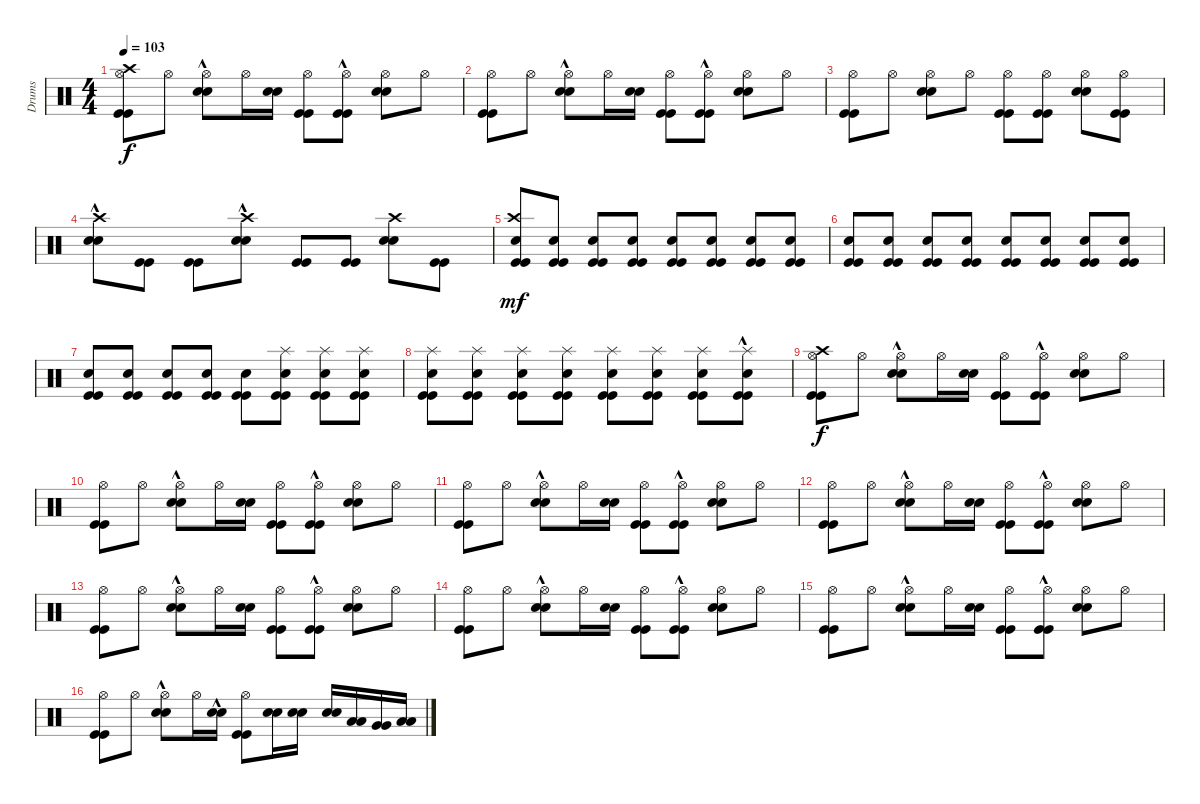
\track ("Drums" "Drums") {instrument percussion}
\staff {score}
\articulation defaults
\ts (4 4)
\tempo 103
\clef neutral
\ks c
("Kick (hit)" "Kick (hit)" "Hi-Hat (open)" "Crash high (hit)").8{dy f} "Hi-Hat (open)".8 ("Snare (hit) 2"{hac} "Snare (hit) 2"{hac} "Hi-Hat (open)").8 "Hi-Hat (open)".16 ("Snare (hit) 2" "Snare (hit) 2").16 ("Kick (hit)" "Kick (hit)" "Hi-Hat (open)").8 ("Kick (hit)"{hac} "Kick (hit)"{hac} "Hi-Hat (open)").8 ("Snare (hit) 2" "Snare (hit) 2" "Hi-Hat (open)").8 "Hi-Hat (open)".8 |
("Kick (hit)" "Kick (hit)" "Hi-Hat (open)").8 "Hi-Hat (open)".8 ("Snare (hit) 2"{hac} "Snare (hit) 2"{hac} "Hi-Hat (open)").8 "Hi-Hat (open)".16 ("Snare (hit) 2" "Snare (hit) 2").16 ("Kick (hit)" "Kick (hit)" "Hi-Hat (open)").8 ("Kick (hit)"{hac} "Kick (hit)"{hac} "Hi-Hat (open)").8 ("Snare (hit) 2" "Snare (hit) 2" "Hi-Hat (open)").8 "Hi-Hat (open)".8 |
("Kick (hit)" "Kick (hit)" "Hi-Hat (open)").8 "Hi-Hat (open)".8 ("Snare (hit) 2" "Snare (hit) 2" "Hi-Hat (open)").8 "Hi-Hat (open)".8 ("Kick (hit)" "Kick (hit)" "Hi-Hat (open)").8 ("Kick (hit)" "Kick (hit)" "Hi-Hat (open)").8 ("Snare (hit) 2" "Snare (hit) 2" "Hi-Hat (open)").8 ("Kick (hit)" "Kick (hit)" "Hi-Hat (open)").8 |
("Snare (hit) 2"{hac} "Snare (hit) 2"{hac} "Crash high (hit)"{hac}).8 ("Kick (hit)" "Kick (hit)").8 ("Kick (hit)" "Kick (hit)").8 ("Snare (hit) 2"{hac} "Snare (hit) 2"{hac} "Crash high (hit)"{hac}).8 ("Kick (hit)" "Kick (hit)").8 ("Kick (hit)" "Kick (hit)").8 ("Snare (hit) 2" "Snare (hit) 2" "Crash high (hit)").8 ("Kick (hit)" "Kick (hit)").8 |
("Kick (hit)" "Kick (hit)" "Snare (hit) 2" "Crash high (hit)").8{dy mf} ("Kick (hit)" "Kick (hit)" "Snare (hit) 2").8 ("Kick (hit)" "Kick (hit)" "Snare (hit) 2").8 ("Kick (hit)" "Kick (hit)" "Snare (hit) 2").8 ("Kick (hit)" "Kick (hit)" "Snare (hit) 2").8 ("Kick (hit)" "Kick (hit)" "Snare (hit) 2").8 ("Kick (hit)" "Kick (hit)" "Snare (hit) 2").8 ("Kick (hit)" "Kick (hit)" "Snare (hit) 2").8 |
("Kick (hit)" "Kick (hit)" "Snare (hit) 2").8 ("Kick (hit)" "Kick (hit)" "Snare (hit) 2").8 ("Kick (hit)" "Kick (hit)" "Snare (hit) 2").8 ("Kick (hit)" "Kick (hit)" "Snare (hit) 2").8 ("Kick (hit)" "Kick (hit)" "Snare (hit) 2").8 ("Kick (hit)" "Kick (hit)" "Snare (hit) 2").8 ("Kick (hit)" "Kick (hit)" "Snare (hit) 2").8 ("Kick (hit)" "Kick (hit)" "Snare (hit) 2").8 |
("Kick (hit)" "Kick (hit)" "Snare (hit) 2").8 ("Kick (hit)" "Kick (hit)" "Snare (hit) 2").8 ("Kick (hit)" "Kick (hit)" "Snare (hit) 2").8 ("Kick (hit)" "Kick (hit)" "Snare (hit) 2").8 ("Kick (hit)" "Kick (hit)" "Snare (hit) 2").8 ("Kick (hit)" "Kick (hit)" "Snare (hit) 2" "Splash (hit)").8 ("Kick (hit)" "Kick (hit)" "Snare (hit) 2" "Splash (hit)").8 ("Kick (hit)" "Kick (hit)" "Snare (hit) 2" "Splash (hit)").8 |
("Kick (hit)" "Kick (hit)" "Snare (hit) 2" "Splash (hit)").8 ("Kick (hit)" "Kick (hit)" "Snare (hit) 2" "Splash (hit)").8 ("Kick (hit)" "Kick (hit)" "Snare (hit) 2" "Splash (hit)").8 ("Kick (hit)" "Kick (hit)" "Snare (hit) 2" "Splash (hit)").8 ("Kick (hit)" "Kick (hit)" "Snare (hit) 2" "Splash (hit)").8 ("Kick (hit)" "Kick (hit)" "Snare (hit) 2" "Splash (hit)").8 ("Kick (hit)" "Kick (hit)" "Snare (hit) 2" "Splash (hit)").8 ("Kick (hit)" "Kick (hit)" "Snare (hit) 2"{hac} "Splash (hit)").8 |
("Kick (hit)" "Kick (hit)" "Hi-Hat (open)" "Crash high (hit)").8{dy f} "Hi-Hat (open)".8 ("Snare (hit) 2"{hac} "Snare (hit) 2"{hac} "Hi-Hat (open)").8 "Hi-Hat (open)".16 ("Snare (hit) 2" "Snare (hit) 2").16 ("Kick (hit)" "Kick (hit)" "Hi-Hat (open)").8 ("Kick (hit)"{hac} "Kick (hit)"{hac} "Hi-Hat (open)").8 ("Snare (hit) 2" "Snare (hit) 2" "Hi-Hat (open)").8 "Hi-Hat (open)".8 |
("Kick (hit)" "Kick (hit)" "Hi-Hat (open)").8 "Hi-Hat (open)".8 ("Snare (hit) 2"{hac} "Snare (hit) 2"{hac} "Hi-Hat (open)").8 "Hi-Hat (open)".16 ("Snare (hit) 2" "Snare (hit) 2").16 ("Kick (hit)" "Kick (hit)" "Hi-Hat (open)").8 ("Kick (hit)"{hac} "Kick (hit)"{hac} "Hi-Hat (open)").8 ("Snare (hit) 2" "Snare (hit) 2" "Hi-Hat (open)").8 "Hi-Hat (open)".8 |
("Kick (hit)" "Kick (hit)" "Hi-Hat (open)").8 "Hi-Hat (open)".8 ("Snare (hit) 2"{hac} "Snare (hit) 2"{hac} "Hi-Hat (open)").8 "Hi-Hat (open)".16 ("Snare (hit) 2" "Snare (hit) 2").16 ("Kick (hit)" "Kick (hit)" "Hi-Hat (open)").8 ("Kick (hit)"{hac} "Kick (hit)"{hac} "Hi-Hat (open)").8 ("Snare (hit) 2" "Snare (hit) 2" "Hi-Hat (open)").8 "Hi-Hat (open)".8 |
("Kick (hit)" "Kick (hit)" "Hi-Hat (open)").8 "Hi-Hat (open)".8 ("Snare (hit) 2"{hac} "Snare (hit) 2"{hac} "Hi-Hat (open)").8 "Hi-Hat (open)".16 ("Snare (hit) 2" "Snare (hit) 2").16 ("Kick (hit)" "Kick (hit)" "Hi-Hat (open)").8 ("Kick (hit)"{hac} "Kick (hit)"{hac} "Hi-Hat (open)").8 ("Snare (hit) 2" "Snare (hit) 2" "Hi-Hat (open)").8 "Hi-Hat (open)".8 |
("Kick (hit)" "Kick (hit)" "Hi-Hat (open)").8 "Hi-Hat (open)".8 ("Snare (hit) 2"{hac} "Snare (hit) 2"{hac} "Hi-Hat (open)").8 "Hi-Hat (open)".16 ("Snare (hit) 2" "Snare (hit) 2").16 ("Kick (hit)" "Kick (hit)" "Hi-Hat (open)").8 ("Kick (hit)"{hac} "Kick (hit)"{hac} "Hi-Hat (open)").8 ("Snare (hit) 2" "Snare (hit) 2" "Hi-Hat (open)").8 "Hi-Hat (open)".8 |
("Kick (hit)" "Kick (hit)" "Hi-Hat (open)").8 "Hi-Hat (open)".8 ("Snare (hit) 2"{hac} "Snare (hit) 2"{hac} "Hi-Hat (open)").8 "Hi-Hat (open)".16 ("Snare (hit) 2" "Snare (hit) 2").16 ("Kick (hit)" "Kick (hit)" "Hi-Hat (open)").8 ("Kick (hit)"{hac} "Kick (hit)"{hac} "Hi-Hat (open)").8 ("Snare (hit) 2" "Snare (hit) 2" "Hi-Hat (open)").8 "Hi-Hat (open)".8 |
("Kick (hit)" "Kick (hit)" "Hi-Hat (open)").8 "Hi-Hat (open)".8 ("Snare (hit) 2"{hac} "Snare (hit) 2"{hac} "Hi-Hat (open)").8 "Hi-Hat (open)".16 ("Snare (hit) 2" "Snare (hit) 2").16 ("Kick (hit)" "Kick (hit)" "Hi-Hat (open)").8 ("Kick (hit)"{hac} "Kick (hit)"{hac} "Hi-Hat (open)").8 ("Snare (hit) 2" "Snare (hit) 2" "Hi-Hat (open)").8 "Hi-Hat (open)".8 |
("Kick (hit)" "Kick (hit)" "Hi-Hat (open)").8 "Hi-Hat (open)".8 ("Snare (hit) 2"{hac} "Snare (hit) 2"{hac} "Hi-Hat (open)").8 "Hi-Hat (open)".16 ("Snare (hit) 2"{hac} "Snare (hit) 2"{hac}).16 ("Kick (hit)" "Kick (hit)" "Hi-Hat (open)").8 ("Snare (hit) 2" "Snare (hit) 2").16 ("Snare (hit) 2" "Snare (hit) 2").16 ("Snare (hit) 2" "Snare (hit) 2").16 ("Low Tom (hit)" "Low Tom (hit)").16 ("Very Low Tom (hit)" "Very Low Tom (hit)").16 ("Low Floor Tom (hit)" "Low Floor Tom (hit)").16
